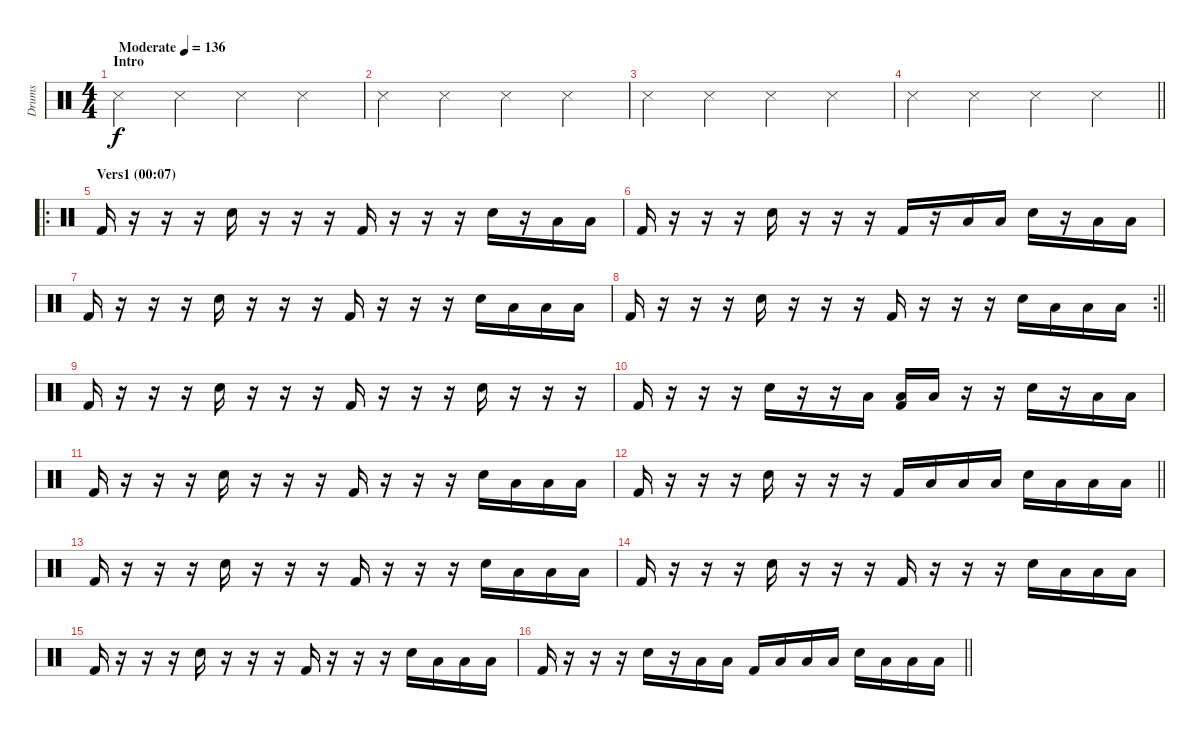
\track ("Drums" "Drums") {instrument percussion}
\staff {score}
\articulation defaults
\ts (4 4)
\section ("" "Intro")
\tempo (136 "Moderate")
\clef neutral
\ks c "Metronome (hit)".4{dy f} "Metronome (hit)".4 "Metronome (hit)".4 "Metronome (hit)".4
|
"Metronome (hit)".4 "Metronome (hit)".4 "Metronome (hit)".4 "Metronome (hit)".4 |
"Metronome (hit)".4 "Metronome (hit)".4 "Metronome (hit)".4 "Metronome (hit)".4 |
\barLineRight lightlight "Metronome (hit)".4 "Metronome (hit)".4 "Metronome (hit)".4 "Metronome (hit)".4
|
\ro
\section ("" "Vers1 (00:07)")
"Kick (hit) 2".16 r.16 r.16 r.16 "Electric Snare (hit)".16 r.16 r.16 r.16 "Kick (hit) 2".16 r.16 r.16 r.16 "Electric Snare (hit)".16 r.16 "Low Floor Tom (hit)".16 "Low Floor Tom (hit)".16 |
"Kick (hit) 2".16 r.16 r.16 r.16 "Electric Snare (hit)".16 r.16 r.16 r.16 "Kick (hit) 2".16 r.16 "Low Floor Tom (hit)".16 "Low Floor Tom (hit)".16 "Electric Snare (hit)".16 r.16 "Low Floor Tom (hit)".16 "Low Floor Tom (hit)".16 |
"Kick (hit) 2".16 r.16 r.16 r.16 "Electric Snare (hit)".16 r.16 r.16 r.16 "Kick (hit) 2".16 r.16 r.16 r.16 "Electric Snare (hit)".16 "Low Floor Tom (hit)".16 "Low Floor Tom (hit)".16 "Low Floor Tom (hit)".16 |
\rc 2
\barLineRight lightlight "Kick (hit) 2".16
r.16 r.16 r.16 "Electric Snare (hit)".16 r.16 r.16 r.16 "Kick (hit) 2".16 r.16 r.16 r.16 "Electric Snare (hit)".16 "Low Floor Tom (hit)".16 "Low Floor Tom (hit)".16 "Low Floor Tom (hit)".16 |
"Kick (hit) 2".16 r.16 r.16 r.16 "Electric Snare (hit)".16 r.16 r.16 r.16 "Kick (hit) 2".16 r.16 r.16 r.16 "Electric Snare (hit)".16 r.16 r.16 r.16 |
"Kick (hit) 2".16 r.16 r.16 r.16 "Electric Snare (hit)".16 r.16 r.16 "Low Floor Tom (hit)".16 ("Low Floor Tom (hit)" "Kick (hit) 2").16 "Low Floor Tom (hit)".16 r.16 r.16 "Electric Snare (hit)".16 r.16 "Low Floor Tom (hit)".16 "Low Floor Tom (hit)".16 |
"Kick (hit) 2".16 r.16 r.16 r.16 "Electric Snare (hit)".16 r.16 r.16 r.16 "Kick (hit) 2".16 r.16 r.16 r.16 "Electric Snare (hit)".16 "Low Floor Tom (hit)".16 "Low Floor Tom (hit)".16 "Low Floor Tom (hit)".16 |
\barLineRight lightlight "Kick (hit) 2".16
r.16 r.16 r.16 "Electric Snare (hit)".16 r.16 r.16 r.16 "Kick (hit) 2".16 "Low Floor Tom (hit)".16 "Low Floor Tom (hit)".16 "Low Floor Tom (hit)".16 "Electric Snare (hit)".16 "Low Floor Tom (hit)".16 "Low Floor Tom (hit)".16 "Low Floor Tom (hit)".16 |
"Kick (hit) 2".16 r.16 r.16 r.16 "Electric Snare (hit)".16 r.16 r.16 r.16 "Kick (hit) 2".16 r.16 r.16 r.16 "Electric Snare (hit)".16 "Low Floor Tom (hit)".16 "Low Floor Tom (hit)".16 "Low Floor Tom (hit)".16 |
"Kick (hit) 2".16 r.16 r.16 r.16 "Electric Snare (hit)".16 r.16 r.16 r.16 "Kick (hit) 2".16 r.16 r.16 r.16 "Electric Snare (hit)".16 "Low Floor Tom (hit)".16 "Low Floor Tom (hit)".16 "Low Floor Tom (hit)".16 |
"Kick (hit) 2".16 r.16 r.16 r.16 "Electric Snare (hit)".16 r.16 r.16 r.16 "Kick (hit) 2".16 r.16 r.16 r.16 "Electric Snare (hit)".16 "Low Floor Tom (hit)".16 "Low Floor Tom (hit)".16 "Low Floor Tom (hit)".16 |
\barLineRight lightlight "Kick (hit) 2".16
r.16 r.16 r.16 "Electric Snare (hit)".16 r.16 "Low Floor Tom (hit)".16 "Low Floor Tom (hit)".16 "Kick (hit) 2".16 "Low Floor Tom (hit)".16 "Low Floor Tom (hit)".16 "Low Floor Tom (hit)".16 "Electric Snare (hit)".16 "Low Floor Tom (hit)".16 "Low Floor Tom (hit)".16 "Low Floor Tom (hit)".16
